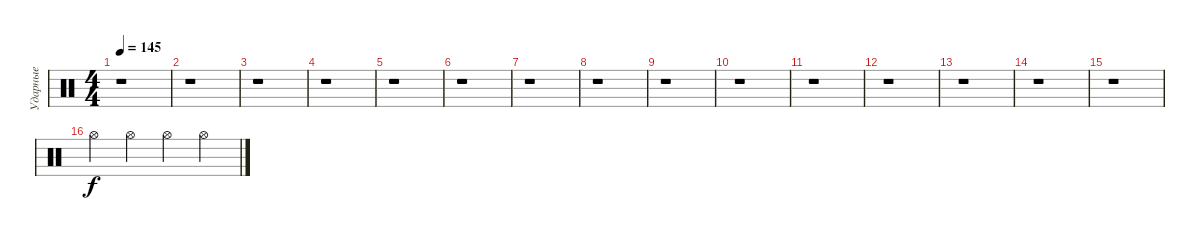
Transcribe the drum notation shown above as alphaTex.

\track ("Ударные" "Ударные") {instrument percussion}
\staff {score}
\articulation defaults
\ts (4 4)
\tempo 145
\clef neutral
\ks c
r.1{dy f} |
r.1 |
r.1 |
r.1 |
r.1 |
r.1 |
r.1 |
r.1 |
r.1 |
r.1 |
r.1 |
r.1 |
r.1 |
r.1 |
r.1 |
"Hi-Hat (open)".4 "Hi-Hat (open)".4 "Hi-Hat (open)".4 "Hi-Hat (open)".4
